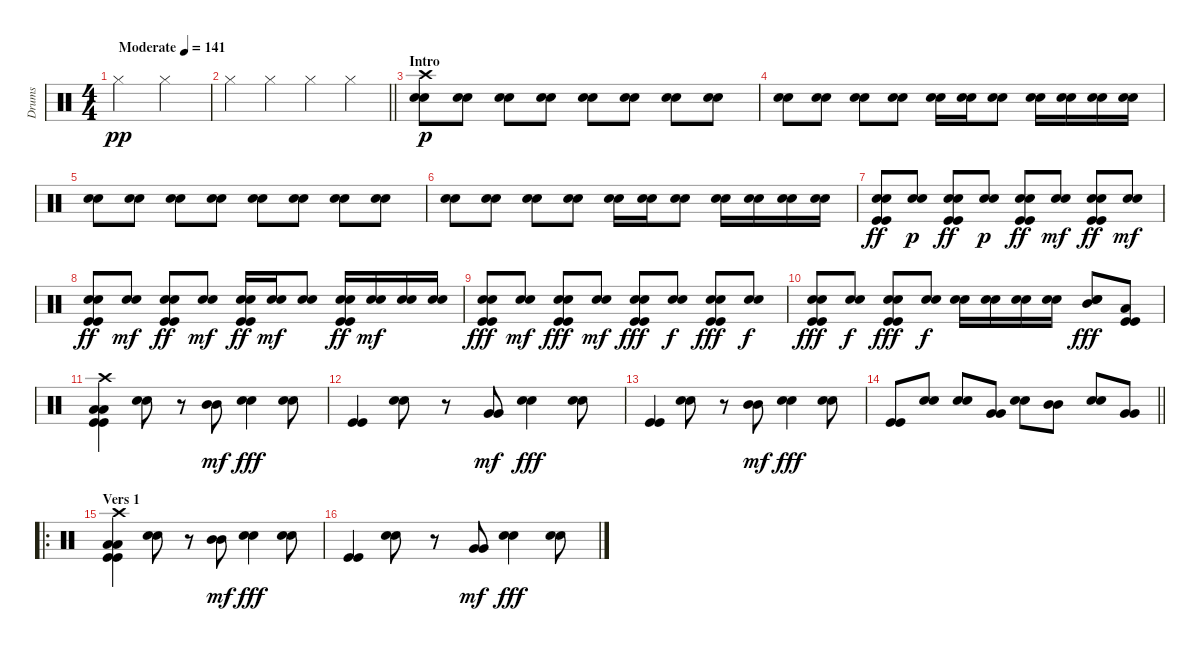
\track ("Drums" "Drums") {instrument percussion}
\staff {score}
\articulation defaults
\ts (4 4)
\tempo (141 "Moderate")
\clef neutral
\ks c "Hi-Hat (closed)".2{dy pp} "Hi-Hat (closed)".2
|
\barLineRight lightlight "Hi-Hat (closed)".4 "Hi-Hat (closed)".4 "Hi-Hat (closed)".4 "Hi-Hat (closed)".4
|
\section ("" "Intro")
("Crash high (hit)" "Snare (hit) 2" "Snare (hit) 2").8{dy p} ("Snare (hit) 2" "Snare (hit) 2").8{volume 5} ("Snare (hit) 2" "Snare (hit) 2").8 ("Snare (hit) 2" "Snare (hit) 2").8 ("Snare (hit) 2" "Snare (hit) 2").8 ("Snare (hit) 2" "Snare (hit) 2").8 ("Snare (hit) 2" "Snare (hit) 2").8 ("Snare (hit) 2" "Snare (hit) 2").8 |
("Snare (hit) 2" "Snare (hit) 2").8 ("Snare (hit) 2" "Snare (hit) 2").8 ("Snare (hit) 2" "Snare (hit) 2").8 ("Snare (hit) 2" "Snare (hit) 2").8 ("Snare (hit) 2" "Snare (hit) 2").16 ("Snare (hit) 2" "Snare (hit) 2").16 ("Snare (hit) 2" "Snare (hit) 2").8 ("Snare (hit) 2" "Snare (hit) 2").16 ("Snare (hit) 2" "Snare (hit) 2").16 ("Snare (hit) 2" "Snare (hit) 2").16 ("Snare (hit) 2" "Snare (hit) 2").16 |
("Snare (hit) 2" "Snare (hit) 2").8 ("Snare (hit) 2" "Snare (hit) 2").8 ("Snare (hit) 2" "Snare (hit) 2").8 ("Snare (hit) 2" "Snare (hit) 2").8 ("Snare (hit) 2" "Snare (hit) 2").8 ("Snare (hit) 2" "Snare (hit) 2").8 ("Snare (hit) 2" "Snare (hit) 2").8 ("Snare (hit) 2" "Snare (hit) 2").8 |
("Snare (hit) 2" "Snare (hit) 2").8 ("Snare (hit) 2" "Snare (hit) 2").8 ("Snare (hit) 2" "Snare (hit) 2").8 ("Snare (hit) 2" "Snare (hit) 2").8 ("Snare (hit) 2" "Snare (hit) 2").16 ("Snare (hit) 2" "Snare (hit) 2").16 ("Snare (hit) 2" "Snare (hit) 2").8 ("Snare (hit) 2" "Snare (hit) 2").16 ("Snare (hit) 2" "Snare (hit) 2").16 ("Snare (hit) 2" "Snare (hit) 2").16 ("Snare (hit) 2" "Snare (hit) 2").16 |
("Snare (hit) 2" "Snare (hit) 2" "Kick (hit)" "Kick (hit)").8{dy ff} ("Snare (hit) 2" "Snare (hit) 2").8{dy p} ("Snare (hit) 2" "Snare (hit) 2" "Kick (hit)" "Kick (hit)").8{dy ff} ("Snare (hit) 2" "Snare (hit) 2").8{dy p} ("Snare (hit) 2" "Snare (hit) 2" "Kick (hit)" "Kick (hit)").8{dy ff} ("Snare (hit) 2" "Snare (hit) 2").8{dy mf} ("Snare (hit) 2" "Snare (hit) 2" "Kick (hit)" "Kick (hit)").8{dy ff} ("Snare (hit) 2" "Snare (hit) 2").8{dy mf} |
("Snare (hit) 2" "Snare (hit) 2" "Kick (hit)" "Kick (hit)").8{dy ff} ("Snare (hit) 2" "Snare (hit) 2").8{dy mf} ("Snare (hit) 2" "Snare (hit) 2" "Kick (hit)" "Kick (hit)").8{dy ff} ("Snare (hit) 2" "Snare (hit) 2").8{dy mf} ("Snare (hit) 2" "Snare (hit) 2" "Kick (hit)" "Kick (hit)").16{dy ff} ("Snare (hit) 2" "Snare (hit) 2").16{dy mf} ("Snare (hit) 2" "Snare (hit) 2").8 ("Snare (hit) 2" "Snare (hit) 2" "Kick (hit)" "Kick (hit)").16{dy ff} ("Snare (hit) 2" "Snare (hit) 2").16{dy mf} ("Snare (hit) 2" "Snare (hit) 2").16 ("Snare (hit) 2" "Snare (hit) 2").16 |
("Snare (hit) 2" "Snare (hit) 2" "Kick (hit)" "Kick (hit)").8{dy fff} ("Snare (hit) 2" "Snare (hit) 2").8{dy mf} ("Snare (hit) 2" "Snare (hit) 2" "Kick (hit)" "Kick (hit)").8{dy fff} ("Snare (hit) 2" "Snare (hit) 2").8{dy mf} ("Snare (hit) 2" "Snare (hit) 2" "Kick (hit)" "Kick (hit)").8{dy fff} ("Snare (hit) 2" "Snare (hit) 2").8{dy f} ("Snare (hit) 2" "Snare (hit) 2" "Kick (hit)" "Kick (hit)").8{dy fff} ("Snare (hit) 2" "Snare (hit) 2").8{dy f} |
("Snare (hit) 2" "Snare (hit) 2" "Kick (hit)" "Kick (hit)").8{dy fff} ("Snare (hit) 2" "Snare (hit) 2").8{dy f} ("Snare (hit) 2" "Snare (hit) 2" "Kick (hit)" "Kick (hit)").8{dy fff volume 7} ("Snare (hit) 2" "Snare (hit) 2").8{dy f} ("Snare (hit) 2" "Snare (hit) 2").16{volume 9} ("Snare (hit) 2" "Snare (hit) 2").16 ("Snare (hit) 2" "Snare (hit) 2").16 ("Snare (hit) 2" "Snare (hit) 2").16 ("Snare (hit) 2" "Snare (hit) 2" "Mid Tom (hit)").8{dy fff} ("Low Floor Tom (hit)" "Kick (hit)" "Kick (hit)").8 |
("Crash high (hit)" "Low Floor Tom (hit)" "Low Floor Tom (hit)" "Kick (hit)" "Kick (hit)").4 ("Snare (hit) 2" "Snare (hit) 2").8 r.8 ("Mid Tom (hit)" "Mid Tom (hit)").8{dy mf} ("Snare (hit) 2" "Snare (hit) 2").4{dy fff} ("Snare (hit) 2" "Snare (hit) 2").8 |
("Kick (hit)" "Kick (hit)").4 ("Snare (hit) 2" "Snare (hit) 2").8 r.8 ("Very Low Tom (hit)" "Very Low Tom (hit)").8{dy mf} ("Snare (hit) 2" "Snare (hit) 2").4{dy fff} ("Snare (hit) 2" "Snare (hit) 2").8 |
("Kick (hit)" "Kick (hit)").4 ("Snare (hit) 2" "Snare (hit) 2").8 r.8 ("Mid Tom (hit)" "Mid Tom (hit)").8{dy mf} ("Snare (hit) 2" "Snare (hit) 2").4{dy fff} ("Snare (hit) 2" "Snare (hit) 2").8 |
\barLineRight lightlight
("Kick (hit)" "Kick (hit)").8 ("Snare (hit) 2" "Snare (hit) 2").8 ("Snare (hit) 2" "Snare (hit) 2").8 ("Very Low Tom (hit)" "Very Low Tom (hit)").8 ("Snare (hit) 2" "Snare (hit) 2").8 ("Mid Tom (hit)" "Mid Tom (hit)").8 ("Snare (hit) 2" "Snare (hit) 2").8 ("Very Low Tom (hit)" "Very Low Tom (hit)").8 |
\ro
\section ("" "Vers 1")
("Crash high (hit)" "Low Floor Tom (hit)" "Low Floor Tom (hit)" "Kick (hit)" "Kick (hit)").4 ("Snare (hit) 2" "Snare (hit) 2").8 r.8 ("Mid Tom (hit)" "Mid Tom (hit)").8{dy mf} ("Snare (hit) 2" "Snare (hit) 2").4{dy fff} ("Snare (hit) 2" "Snare (hit) 2").8 |
("Kick (hit)" "Kick (hit)").4 ("Snare (hit) 2" "Snare (hit) 2").8 r.8 ("Very Low Tom (hit)" "Very Low Tom (hit)").8{dy mf} ("Snare (hit) 2" "Snare (hit) 2").4{dy fff} ("Snare (hit) 2" "Snare (hit) 2").8
